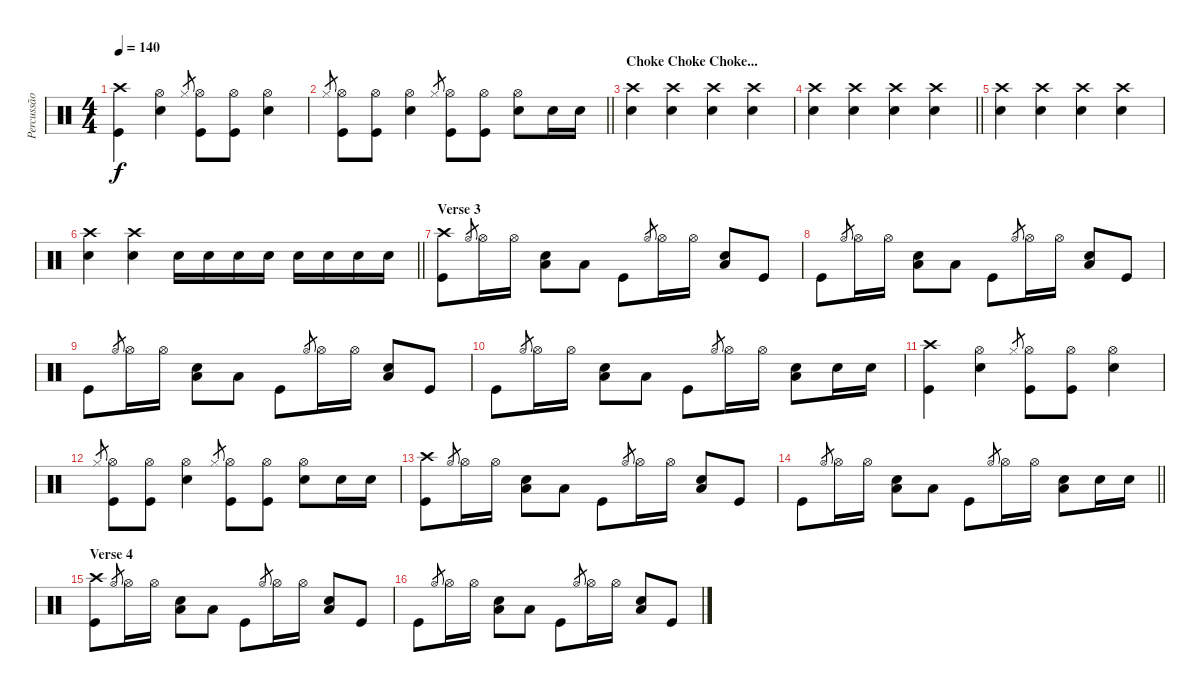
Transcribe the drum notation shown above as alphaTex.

\track ("Percussão" "Percussão") {instrument percussion}
\staff {score}
\articulation defaults
\ts (4 4)
\tempo 140
\clef neutral
\ks c
("Crash high (hit)" "Kick (hit)").4{dy f} ("Hi-Hat (open)" "Snare (hit) 2").4 "Hi-Hat (closed)".8{gr} ("Hi-Hat (open)" "Kick (hit)").8 ("Hi-Hat (open)" "Kick (hit)").8 ("Hi-Hat (open)" "Snare (hit) 2").4 |
\barLineRight lightlight "Hi-Hat (closed)".8{gr}
("Hi-Hat (open)" "Kick (hit)").8 ("Hi-Hat (open)" "Kick (hit)").8 ("Hi-Hat (open)" "Snare (hit) 2").4 "Hi-Hat (closed)".8{gr} ("Hi-Hat (open)" "Kick (hit)").8 ("Hi-Hat (open)" "Kick (hit)").8 ("Hi-Hat (open)" "Snare (hit) 2").8 "Snare (hit) 2".16 "Snare (hit) 2".16 |
\section ("" "Choke Choke Choke...")
("Crash high (hit)" "Snare (hit) 2").4 ("Crash high (hit)" "Snare (hit) 2").4 ("Crash high (hit)" "Snare (hit) 2").4 ("Crash high (hit)" "Snare (hit) 2").4 |
\barLineRight lightlight
("Crash high (hit)" "Snare (hit) 2").4 ("Crash high (hit)" "Snare (hit) 2").4 ("Crash high (hit)" "Snare (hit) 2").4 ("Crash high (hit)" "Snare (hit) 2").4 |
("Crash high (hit)" "Snare (hit) 2").4 ("Crash high (hit)" "Snare (hit) 2").4 ("Crash high (hit)" "Snare (hit) 2").4 ("Crash high (hit)" "Snare (hit) 2").4 |
\barLineRight lightlight
("Crash high (hit)" "Snare (hit) 2").4 ("Crash high (hit)" "Snare (hit) 2").4 "Snare (hit) 2".16 "Snare (hit) 2".16 "Snare (hit) 2".16 "Snare (hit) 2".16 "Snare (hit) 2".16 "Snare (hit) 2".16 "Snare (hit) 2".16 "Snare (hit) 2".16 |
\section ("" "Verse 3")
("Crash high (hit)" "Kick (hit)").8 "Hi-Hat (open)".8{gr} "Hi-Hat (open)".16 "Hi-Hat (open)".16 ("Snare (hit) 2" "Low Tom (hit)").8 "Low Tom (hit)".8 "Kick (hit)".8 "Hi-Hat (open)".8{gr} "Hi-Hat (open)".16 "Hi-Hat (open)".16 ("Snare (hit) 2" "Low Tom (hit)").8 "Kick (hit)".8 |
"Kick (hit)".8 "Hi-Hat (open)".8{gr} "Hi-Hat (open)".16 "Hi-Hat (open)".16 ("Snare (hit) 2" "Low Tom (hit)").8 "Low Tom (hit)".8 "Kick (hit)".8 "Hi-Hat (open)".8{gr} "Hi-Hat (open)".16 "Hi-Hat (open)".16 ("Snare (hit) 2" "Low Tom (hit)").8 "Kick (hit)".8 |
"Kick (hit)".8 "Hi-Hat (open)".8{gr} "Hi-Hat (open)".16 "Hi-Hat (open)".16 ("Snare (hit) 2" "Low Tom (hit)").8 "Low Tom (hit)".8 "Kick (hit)".8 "Hi-Hat (open)".8{gr} "Hi-Hat (open)".16 "Hi-Hat (open)".16 ("Snare (hit) 2" "Low Tom (hit)").8 "Kick (hit)".8 |
"Kick (hit)".8 "Hi-Hat (open)".8{gr} "Hi-Hat (open)".16 "Hi-Hat (open)".16 ("Snare (hit) 2" "Low Tom (hit)").8 "Low Tom (hit)".8 "Kick (hit)".8 "Hi-Hat (open)".8{gr} "Hi-Hat (open)".16 "Hi-Hat (open)".16 ("Snare (hit) 2" "Low Tom (hit)").8 "Snare (hit) 2".16 "Snare (hit) 2".16 |
("Crash high (hit)" "Kick (hit)").4 ("Hi-Hat (open)" "Snare (hit) 2").4 "Hi-Hat (closed)".8{gr} ("Hi-Hat (open)" "Kick (hit)").8 ("Hi-Hat (open)" "Kick (hit)").8 ("Hi-Hat (open)" "Snare (hit) 2").4 |
"Hi-Hat (closed)".8{gr} ("Hi-Hat (open)" "Kick (hit)").8 ("Hi-Hat (open)" "Kick (hit)").8 ("Hi-Hat (open)" "Snare (hit) 2").4 "Hi-Hat (closed)".8{gr} ("Hi-Hat (open)" "Kick (hit)").8 ("Hi-Hat (open)" "Kick (hit)").8 ("Hi-Hat (open)" "Snare (hit) 2").8 "Snare (hit) 2".16 "Snare (hit) 2".16 |
("Crash high (hit)" "Kick (hit)").8 "Hi-Hat (open)".8{gr} "Hi-Hat (open)".16 "Hi-Hat (open)".16 ("Snare (hit) 2" "Low Tom (hit)").8 "Low Tom (hit)".8 "Kick (hit)".8 "Hi-Hat (open)".8{gr} "Hi-Hat (open)".16 "Hi-Hat (open)".16 ("Snare (hit) 2" "Low Tom (hit)").8 "Kick (hit)".8 |
\barLineRight lightlight "Kick (hit)".8 "Hi-Hat (open)".8{gr} "Hi-Hat (open)".16 "Hi-Hat (open)".16
("Snare (hit) 2" "Low Tom (hit)").8 "Low Tom (hit)".8 "Kick (hit)".8 "Hi-Hat (open)".8{gr} "Hi-Hat (open)".16 "Hi-Hat (open)".16 ("Snare (hit) 2" "Low Tom (hit)").8 "Snare (hit) 2".16 "Snare (hit) 2".16 |
\section ("" "Verse 4")
("Crash high (hit)" "Kick (hit)").8 "Hi-Hat (open)".8{gr} "Hi-Hat (open)".16 "Hi-Hat (open)".16 ("Snare (hit) 2" "Low Tom (hit)").8 "Low Tom (hit)".8 "Kick (hit)".8 "Hi-Hat (open)".8{gr} "Hi-Hat (open)".16 "Hi-Hat (open)".16 ("Snare (hit) 2" "Low Tom (hit)").8 "Kick (hit)".8 |
"Kick (hit)".8 "Hi-Hat (open)".8{gr} "Hi-Hat (open)".16 "Hi-Hat (open)".16 ("Snare (hit) 2" "Low Tom (hit)").8 "Low Tom (hit)".8 "Kick (hit)".8 "Hi-Hat (open)".8{gr} "Hi-Hat (open)".16 "Hi-Hat (open)".16 ("Snare (hit) 2" "Low Tom (hit)").8 "Kick (hit)".8
